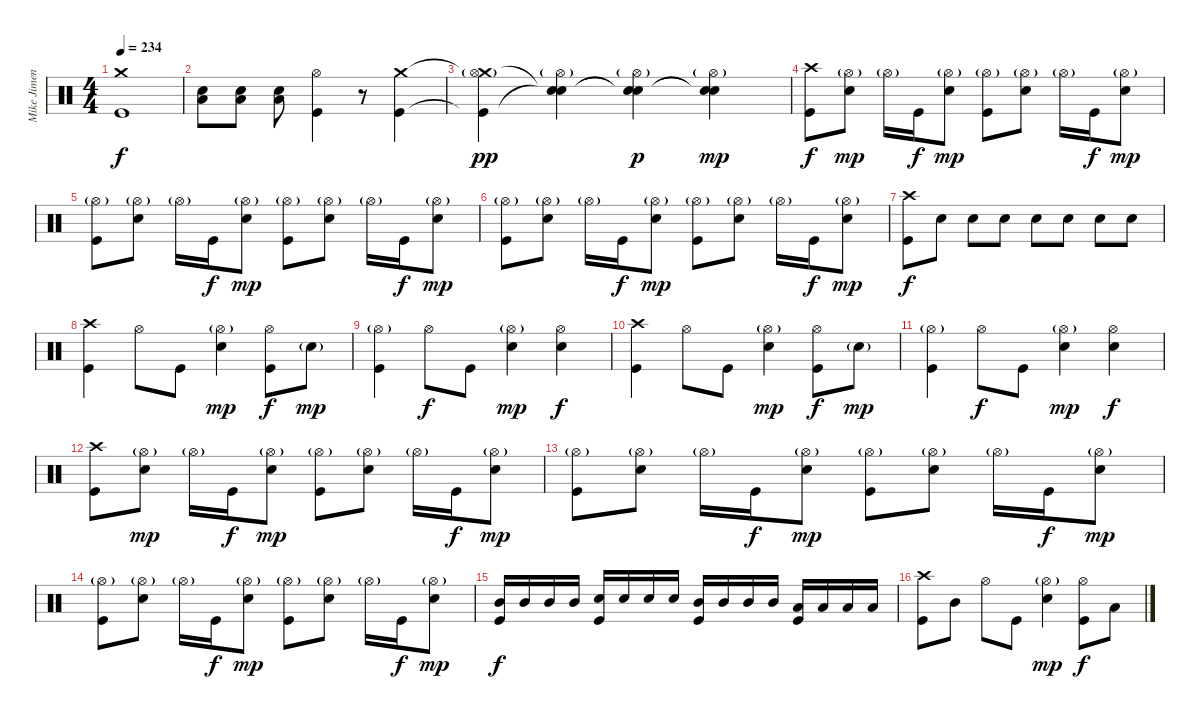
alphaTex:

\track ("Mike Jimenez" "Mike Jimen") {instrument percussion}
\staff {score}
\articulation defaults
\ts (4 4)
\tempo 234
\clef neutral
\ks c
("Crash medium (hit)"{t} "Kick (hit)"{t}).1{dy f} |
("Low Tom (hit)" "Electric Snare (hit)").8 ("Low Tom (hit)" "Electric Snare (hit)").8 ("Low Tom (hit)" "Electric Snare (hit)").8 ("Hi-Hat (open)" "Kick (hit)").4 r.8 ("Crash medium (hit)" "Kick (hit)").4 |
("Crash medium (hit)"{t} "Kick (hit)"{t} "Hi-Hat (open)"{g}).4{dy pp} ("Snare (hit)"{t} "Snare (hit)"{t} "Hi-Hat (open)"{g}).4 ("Snare (hit)"{t} "Snare (hit)"{t} "Hi-Hat (open)"{g}).4{dy p} ("Snare (hit)"{t} "Snare (hit)"{t} "Hi-Hat (open)"{g}).4{dy mp} |
("Crash high (hit)" "Kick (hit)").8{dy f} ("Hi-Hat (open)"{g} "Electric Snare (hit)").8{dy mp} "Hi-Hat (open)"{g}.16 "Kick (hit)".16{dy f} ("Hi-Hat (open)"{g} "Electric Snare (hit)").8{dy mp} ("Hi-Hat (open)"{g} "Kick (hit)").8 ("Hi-Hat (open)"{g} "Electric Snare (hit)").8 "Hi-Hat (open)"{g}.16 "Kick (hit)".16{dy f} ("Hi-Hat (open)"{g} "Electric Snare (hit)").8{dy mp} |
("Hi-Hat (open)"{g} "Kick (hit)").8 ("Hi-Hat (open)"{g} "Electric Snare (hit)").8 "Hi-Hat (open)"{g}.16 "Kick (hit)".16{dy f} ("Hi-Hat (open)"{g} "Electric Snare (hit)").8{dy mp} ("Hi-Hat (open)"{g} "Kick (hit)").8 ("Hi-Hat (open)"{g} "Electric Snare (hit)").8 "Hi-Hat (open)"{g}.16 "Kick (hit)".16{dy f} ("Hi-Hat (open)"{g} "Electric Snare (hit)").8{dy mp} |
("Hi-Hat (open)"{g} "Kick (hit)").8 ("Hi-Hat (open)"{g} "Electric Snare (hit)").8 "Hi-Hat (open)"{g}.16 "Kick (hit)".16{dy f} ("Hi-Hat (open)"{g} "Electric Snare (hit)").8{dy mp} ("Hi-Hat (open)"{g} "Kick (hit)").8 ("Hi-Hat (open)"{g} "Electric Snare (hit)").8 "Hi-Hat (open)"{g}.16 "Kick (hit)".16{dy f} ("Hi-Hat (open)"{g} "Electric Snare (hit)").8{dy mp} |
("Crash high (hit)" "Kick (hit)").8{dy f} "Electric Snare (hit)".8 "Electric Snare (hit)".8 "Electric Snare (hit)".8 "Electric Snare (hit)".8 "Electric Snare (hit)".8 "Electric Snare (hit)".8 "Electric Snare (hit)".8 |
("Crash high (hit)" "Kick (hit)").4 "Hi-Hat (open)".8 "Kick (hit)".8 ("Hi-Hat (open)"{g} "Electric Snare (hit)").4{dy mp} ("Hi-Hat (open)" "Kick (hit)").8{dy f} "Electric Snare (hit)"{g}.8{dy mp} |
("Hi-Hat (open)"{g} "Kick (hit)").4 "Hi-Hat (open)".8{dy f} "Kick (hit)".8 ("Hi-Hat (open)"{g} "Electric Snare (hit)").4{dy mp} ("Hi-Hat (open)" "Electric Snare (hit)").4{dy f} |
("Crash high (hit)" "Kick (hit)").4 "Hi-Hat (open)".8 "Kick (hit)".8 ("Hi-Hat (open)"{g} "Electric Snare (hit)").4{dy mp} ("Hi-Hat (open)" "Kick (hit)").8{dy f} "Electric Snare (hit)"{g}.8{dy mp} |
("Hi-Hat (open)"{g} "Kick (hit)").4 "Hi-Hat (open)".8{dy f} "Kick (hit)".8 ("Hi-Hat (open)"{g} "Electric Snare (hit)").4{dy mp} ("Hi-Hat (open)" "Electric Snare (hit)").4{dy f} |
("Crash high (hit)" "Kick (hit)").8 ("Hi-Hat (open)"{g} "Electric Snare (hit)").8{dy mp} "Hi-Hat (open)"{g}.16 "Kick (hit)".16{dy f} ("Hi-Hat (open)"{g} "Electric Snare (hit)").8{dy mp} ("Hi-Hat (open)"{g} "Kick (hit)").8 ("Hi-Hat (open)"{g} "Electric Snare (hit)").8 "Hi-Hat (open)"{g}.16 "Kick (hit)".16{dy f} ("Hi-Hat (open)"{g} "Electric Snare (hit)").8{dy mp} |
("Hi-Hat (open)"{g} "Kick (hit)").8 ("Hi-Hat (open)"{g} "Electric Snare (hit)").8 "Hi-Hat (open)"{g}.16 "Kick (hit)".16{dy f} ("Hi-Hat (open)"{g} "Electric Snare (hit)").8{dy mp} ("Hi-Hat (open)"{g} "Kick (hit)").8 ("Hi-Hat (open)"{g} "Electric Snare (hit)").8 "Hi-Hat (open)"{g}.16 "Kick (hit)".16{dy f} ("Hi-Hat (open)"{g} "Electric Snare (hit)").8{dy mp} |
("Hi-Hat (open)"{g} "Kick (hit)").8 ("Hi-Hat (open)"{g} "Electric Snare (hit)").8 "Hi-Hat (open)"{g}.16 "Kick (hit)".16{dy f} ("Hi-Hat (open)"{g} "Electric Snare (hit)").8{dy mp} ("Hi-Hat (open)"{g} "Kick (hit)").8 ("Hi-Hat (open)"{g} "Electric Snare (hit)").8 "Hi-Hat (open)"{g}.16 "Kick (hit)".16{dy f} ("Hi-Hat (open)"{g} "Electric Snare (hit)").8{dy mp} |
("Mid Tom (hit)" "Kick (hit)").16{dy f} "Mid Tom (hit)".16 "Mid Tom (hit)".16 "Mid Tom (hit)".16 ("Electric Snare (hit)" "Kick (hit)").16 "Electric Snare (hit)".16 "Electric Snare (hit)".16 "Electric Snare (hit)".16 ("Mid Tom (hit)" "Kick (hit)").16 "Mid Tom (hit)".16 "Mid Tom (hit)".16 "Mid Tom (hit)".16 ("Low Tom (hit)" "Kick (hit)").16 "Low Tom (hit)".16 "Low Tom (hit)".16 "Low Tom (hit)".16 |
("Crash high (hit)" "Kick (hit)").8 "Mid Tom (hit)".8 "Hi-Hat (open)".8 "Kick (hit)".8 ("Hi-Hat (open)"{g} "Electric Snare (hit)").4{dy mp} ("Hi-Hat (open)" "Kick (hit)").8{dy f} "Low Tom (hit)".8
